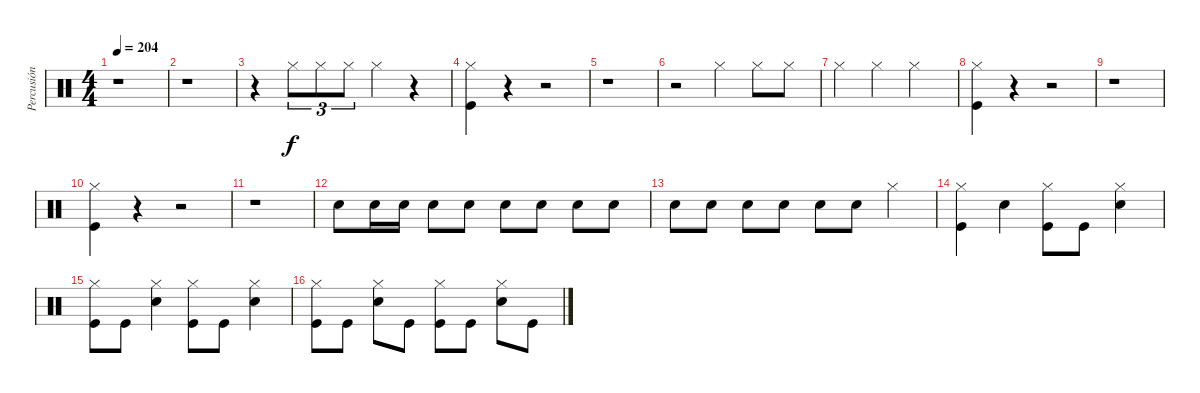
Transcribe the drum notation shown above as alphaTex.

\track ("Percusión" "Percusión") {instrument percussion}
\staff {score}
\articulation defaults
\ts (4 4)
\tempo 204
\clef neutral
\ks c
r.1{dy f} |
r.1 |
r.4 "Hi-Hat (closed)".8{tu (3 2)} "Hi-Hat (closed)".8{tu (3 2)} "Hi-Hat (closed)".8{tu (3 2)} "Hi-Hat (closed)".4 r.4 |
("Hi-Hat (closed)" "Kick (hit)").4 r.4 r.2 |
r.1 |
r.2 "Hi-Hat (closed)".4 "Hi-Hat (closed)".8 "Hi-Hat (closed)".8 |
"Hi-Hat (closed)".4 "Hi-Hat (closed)".4 "Hi-Hat (closed)".2 |
("Hi-Hat (closed)" "Kick (hit)").4 r.4 r.2 |
r.1 |
("Hi-Hat (closed)" "Kick (hit)").4 r.4 r.2 |
r.1 |
"Snare (hit) 2".8 "Snare (hit) 2".16 "Snare (hit) 2".16 "Snare (hit) 2".8 "Snare (hit) 2".8 "Snare (hit) 2".8 "Snare (hit) 2".8 "Snare (hit) 2".8 "Snare (hit) 2".8 |
"Snare (hit) 2".8 "Snare (hit) 2".8 "Snare (hit) 2".8 "Snare (hit) 2".8 "Snare (hit) 2".8 "Snare (hit) 2".8 "Hi-Hat (closed)".4 |
("Hi-Hat (closed)" "Kick (hit)").4 "Snare (hit) 2".4 ("Hi-Hat (closed)" "Kick (hit)").8 "Kick (hit)".8 ("Hi-Hat (closed)" "Snare (hit) 2").4 |
("Hi-Hat (closed)" "Kick (hit)").8 "Kick (hit)".8 ("Hi-Hat (closed)" "Snare (hit) 2").4 ("Hi-Hat (closed)" "Kick (hit)").8 "Kick (hit)".8 ("Hi-Hat (closed)" "Snare (hit) 2").4 |
("Hi-Hat (closed)" "Kick (hit)").8 "Kick (hit)".8 ("Hi-Hat (closed)" "Snare (hit) 2").8 "Kick (hit)".8 ("Hi-Hat (closed)" "Kick (hit)").8 "Kick (hit)".8 ("Hi-Hat (closed)" "Snare (hit) 2").8 "Kick (hit)".8
